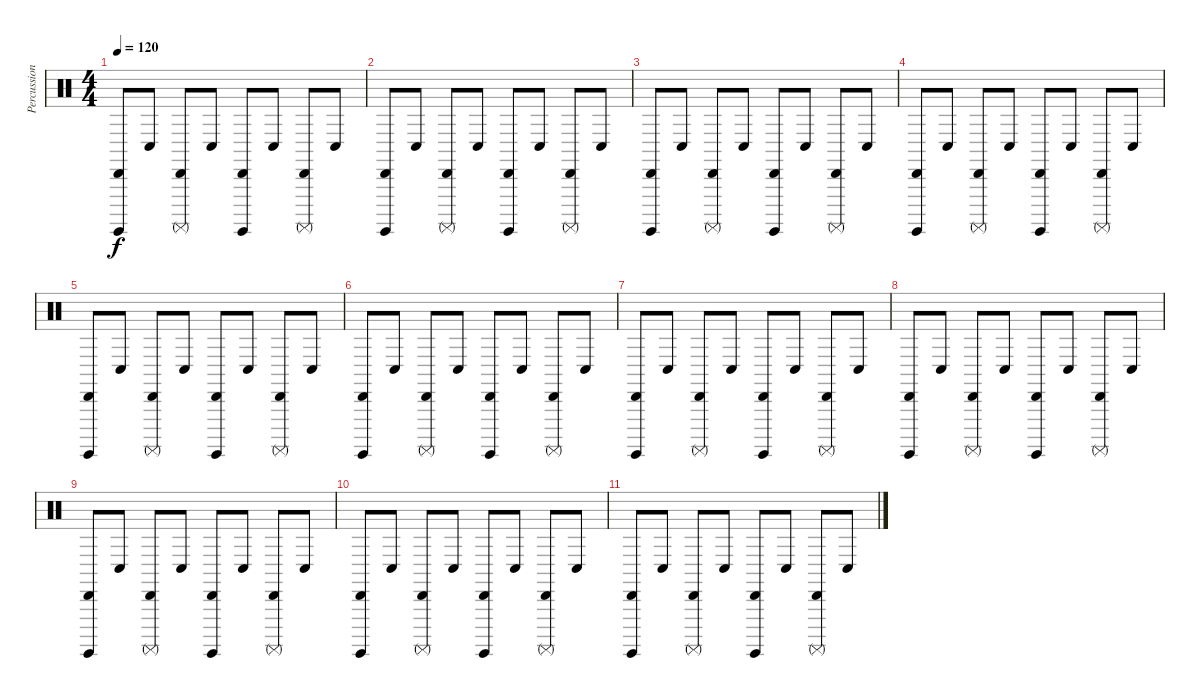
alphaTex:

\track ("Percussion" "Percussion") {instrument percussion}
\staff {score}
\articulation defaults
\ts (4 4)
\tempo 120
\clef neutral
\ks c
("Surdo (hit)" "Cabasa (hit)").8{dy f} "Conga low (hit)".8 ("Surdo (mute)" "Cabasa (hit)").8 "Conga low (hit)".8 ("Surdo (hit)" "Cabasa (hit)").8 "Conga low (hit)".8 ("Surdo (mute)" "Cabasa (hit)").8 "Conga low (hit)".8 |
("Surdo (hit)" "Cabasa (hit)").8 "Conga low (hit)".8 ("Surdo (mute)" "Cabasa (hit)").8 "Conga low (hit)".8 ("Surdo (hit)" "Cabasa (hit)").8 "Conga low (hit)".8 ("Surdo (mute)" "Cabasa (hit)").8 "Conga low (hit)".8 |
("Surdo (hit)" "Cabasa (hit)").8 "Conga low (hit)".8 ("Surdo (mute)" "Cabasa (hit)").8 "Conga low (hit)".8 ("Surdo (hit)" "Cabasa (hit)").8 "Conga low (hit)".8 ("Surdo (mute)" "Cabasa (hit)").8 "Conga low (hit)".8 |
("Surdo (hit)" "Cabasa (hit)").8 "Conga low (hit)".8 ("Surdo (mute)" "Cabasa (hit)").8 "Conga low (hit)".8 ("Surdo (hit)" "Cabasa (hit)").8 "Conga low (hit)".8 ("Surdo (mute)" "Cabasa (hit)").8 "Conga low (hit)".8 |
("Surdo (hit)" "Cabasa (hit)").8 "Conga low (hit)".8 ("Surdo (mute)" "Cabasa (hit)").8 "Conga low (hit)".8 ("Surdo (hit)" "Cabasa (hit)").8 "Conga low (hit)".8 ("Surdo (mute)" "Cabasa (hit)").8 "Conga low (hit)".8 |
("Surdo (hit)" "Cabasa (hit)").8 "Conga low (hit)".8 ("Surdo (mute)" "Cabasa (hit)").8 "Conga low (hit)".8 ("Surdo (hit)" "Cabasa (hit)").8 "Conga low (hit)".8 ("Surdo (mute)" "Cabasa (hit)").8 "Conga low (hit)".8 |
("Surdo (hit)" "Cabasa (hit)").8{volume 0} "Conga low (hit)".8 ("Surdo (mute)" "Cabasa (hit)").8 "Conga low (hit)".8 ("Surdo (hit)" "Cabasa (hit)").8 "Conga low (hit)".8 ("Surdo (mute)" "Cabasa (hit)").8 "Conga low (hit)".8 |
("Surdo (hit)" "Cabasa (hit)").8 "Conga low (hit)".8 ("Surdo (mute)" "Cabasa (hit)").8 "Conga low (hit)".8 ("Surdo (hit)" "Cabasa (hit)").8 "Conga low (hit)".8 ("Surdo (mute)" "Cabasa (hit)").8 "Conga low (hit)".8 |
("Surdo (hit)" "Cabasa (hit)").8 "Conga low (hit)".8 ("Surdo (mute)" "Cabasa (hit)").8 "Conga low (hit)".8 ("Surdo (hit)" "Cabasa (hit)").8 "Conga low (hit)".8 ("Surdo (mute)" "Cabasa (hit)").8 "Conga low (hit)".8 |
("Surdo (hit)" "Cabasa (hit)").8 "Conga low (hit)".8 ("Surdo (mute)" "Cabasa (hit)").8 "Conga low (hit)".8 ("Surdo (hit)" "Cabasa (hit)").8 "Conga low (hit)".8 ("Surdo (mute)" "Cabasa (hit)").8 "Conga low (hit)".8 |
("Surdo (hit)" "Cabasa (hit)").8 "Conga low (hit)".8 ("Surdo (mute)" "Cabasa (hit)").8 "Conga low (hit)".8 ("Surdo (hit)" "Cabasa (hit)").8 "Conga low (hit)".8 ("Surdo (mute)" "Cabasa (hit)").8 "Conga low (hit)".8
